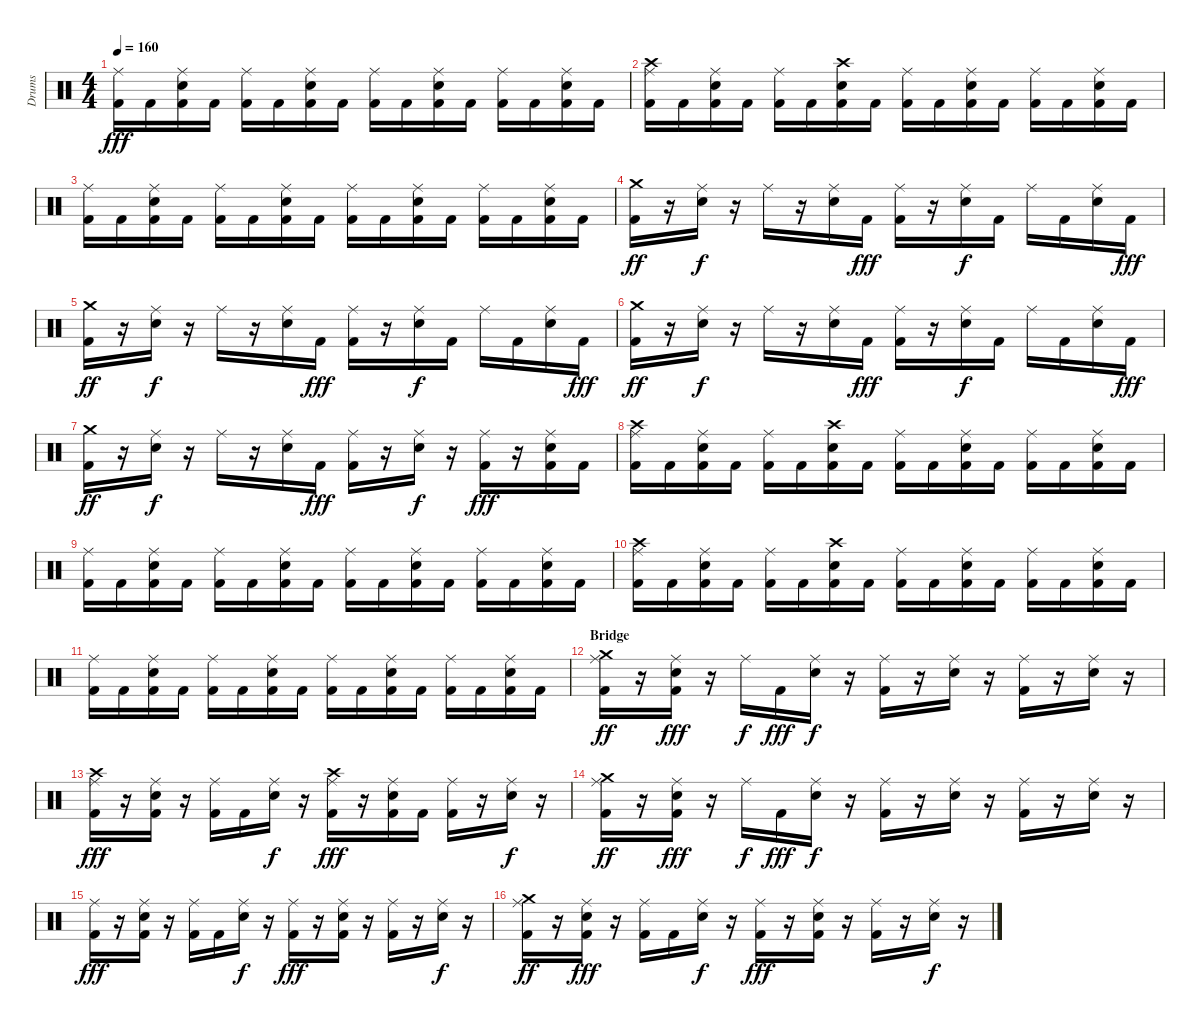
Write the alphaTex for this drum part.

\track ("Drums" "Drums") {instrument percussion}
\staff {score}
\articulation defaults
\ts (4 4)
\tempo 160
\clef neutral
\ks c
("Kick (hit) 2" "Ride (middle)").16{dy fff} "Kick (hit) 2".16 ("Kick (hit) 2" "Ride (middle)" "Snare (hit) 2").16 "Kick (hit) 2".16 ("Kick (hit) 2" "Ride (middle)").16 "Kick (hit) 2".16 ("Kick (hit) 2" "Ride (middle)" "Snare (hit) 2").16 "Kick (hit) 2".16 ("Kick (hit) 2" "Ride (middle)").16 "Kick (hit) 2".16 ("Kick (hit) 2" "Ride (middle)" "Snare (hit) 2").16 "Kick (hit) 2".16 ("Kick (hit) 2" "Ride (middle)").16 "Kick (hit) 2".16 ("Kick (hit) 2" "Ride (middle)" "Snare (hit) 2").16 "Kick (hit) 2".16 |
("Kick (hit) 2" "Ride (middle)" "Crash high (hit)").16 "Kick (hit) 2".16 ("Kick (hit) 2" "Ride (middle)" "Snare (hit) 2").16 "Kick (hit) 2".16 ("Kick (hit) 2" "Ride (middle)").16 "Kick (hit) 2".16 ("Kick (hit) 2" "Snare (hit) 2" "Crash high (hit)").16 "Kick (hit) 2".16 ("Kick (hit) 2" "Ride (middle)").16 "Kick (hit) 2".16 ("Kick (hit) 2" "Ride (middle)" "Snare (hit) 2").16 "Kick (hit) 2".16 ("Kick (hit) 2" "Ride (middle)").16 "Kick (hit) 2".16 ("Kick (hit) 2" "Ride (middle)" "Snare (hit) 2").16 "Kick (hit) 2".16 |
("Kick (hit) 2" "Ride (middle)").16 "Kick (hit) 2".16 ("Kick (hit) 2" "Ride (middle)" "Snare (hit) 2").16 "Kick (hit) 2".16 ("Kick (hit) 2" "Ride (middle)").16 "Kick (hit) 2".16 ("Kick (hit) 2" "Ride (middle)" "Snare (hit) 2").16 "Kick (hit) 2".16 ("Kick (hit) 2" "Ride (middle)").16 "Kick (hit) 2".16 ("Kick (hit) 2" "Ride (middle)" "Snare (hit) 2").16 "Kick (hit) 2".16 ("Kick (hit) 2" "Ride (middle)").16 "Kick (hit) 2".16 ("Kick (hit) 2" "Ride (middle)" "Snare (hit) 2").16 "Kick (hit) 2".16 |
("Kick (hit) 2" "Crash medium (hit)").16{dy ff} r.16 ("Ride (middle)" "Snare (hit) 2").16{dy f} r.16 "Ride (middle)".16 r.16 ("Ride (middle)" "Snare (hit) 2").16 "Kick (hit) 2".16{dy fff} ("Kick (hit) 2" "Ride (middle)").16 r.16 ("Ride (middle)" "Snare (hit) 2").16{dy f} "Kick (hit) 2".16 "Ride (middle)".16 "Kick (hit) 2".16 ("Ride (middle)" "Snare (hit) 2").16 "Kick (hit) 2".16{dy fff} |
("Kick (hit) 2" "Crash medium (hit)").16{dy ff} r.16 ("Ride (middle)" "Snare (hit) 2").16{dy f} r.16 "Ride (middle)".16 r.16 ("Ride (middle)" "Snare (hit) 2").16 "Kick (hit) 2".16{dy fff} ("Kick (hit) 2" "Ride (middle)").16 r.16 ("Ride (middle)" "Snare (hit) 2").16{dy f} "Kick (hit) 2".16 "Ride (middle)".16 "Kick (hit) 2".16 ("Ride (middle)" "Snare (hit) 2").16 "Kick (hit) 2".16{dy fff} |
("Kick (hit) 2" "Crash medium (hit)").16{dy ff} r.16 ("Ride (middle)" "Snare (hit) 2").16{dy f} r.16 "Ride (middle)".16 r.16 ("Ride (middle)" "Snare (hit) 2").16 "Kick (hit) 2".16{dy fff} ("Kick (hit) 2" "Ride (middle)").16 r.16 ("Ride (middle)" "Snare (hit) 2").16{dy f} "Kick (hit) 2".16 "Ride (middle)".16 "Kick (hit) 2".16 ("Ride (middle)" "Snare (hit) 2").16 "Kick (hit) 2".16{dy fff} |
("Kick (hit) 2" "Crash medium (hit)").16{dy ff} r.16 ("Ride (middle)" "Snare (hit) 2").16{dy f} r.16 "Ride (middle)".16 r.16 ("Ride (middle)" "Snare (hit) 2").16 "Kick (hit) 2".16{dy fff} ("Kick (hit) 2" "Ride (middle)").16 r.16 ("Ride (middle)" "Snare (hit) 2").16{dy f} r.16 ("Kick (hit) 2" "Ride (middle)").16{dy fff} r.16 ("Kick (hit) 2" "Ride (middle)" "Snare (hit) 2").16 "Kick (hit) 2".16 |
("Kick (hit) 2" "Ride (middle)" "Crash high (hit)").16 "Kick (hit) 2".16 ("Kick (hit) 2" "Ride (middle)" "Snare (hit) 2").16 "Kick (hit) 2".16 ("Kick (hit) 2" "Ride (middle)").16 "Kick (hit) 2".16 ("Kick (hit) 2" "Snare (hit) 2" "Crash high (hit)").16 "Kick (hit) 2".16 ("Kick (hit) 2" "Ride (middle)").16 "Kick (hit) 2".16 ("Kick (hit) 2" "Ride (middle)" "Snare (hit) 2").16 "Kick (hit) 2".16 ("Kick (hit) 2" "Ride (middle)").16 "Kick (hit) 2".16 ("Kick (hit) 2" "Ride (middle)" "Snare (hit) 2").16 "Kick (hit) 2".16 |
("Kick (hit) 2" "Ride (middle)").16 "Kick (hit) 2".16 ("Kick (hit) 2" "Ride (middle)" "Snare (hit) 2").16 "Kick (hit) 2".16 ("Kick (hit) 2" "Ride (middle)").16 "Kick (hit) 2".16 ("Kick (hit) 2" "Ride (middle)" "Snare (hit) 2").16 "Kick (hit) 2".16 ("Kick (hit) 2" "Ride (middle)").16 "Kick (hit) 2".16 ("Kick (hit) 2" "Ride (middle)" "Snare (hit) 2").16 "Kick (hit) 2".16 ("Kick (hit) 2" "Ride (middle)").16 "Kick (hit) 2".16 ("Kick (hit) 2" "Ride (middle)" "Snare (hit) 2").16 "Kick (hit) 2".16 |
("Kick (hit) 2" "Ride (middle)" "Crash high (hit)").16 "Kick (hit) 2".16 ("Kick (hit) 2" "Ride (middle)" "Snare (hit) 2").16 "Kick (hit) 2".16 ("Kick (hit) 2" "Ride (middle)").16 "Kick (hit) 2".16 ("Kick (hit) 2" "Snare (hit) 2" "Crash high (hit)").16 "Kick (hit) 2".16 ("Kick (hit) 2" "Ride (middle)").16 "Kick (hit) 2".16 ("Kick (hit) 2" "Ride (middle)" "Snare (hit) 2").16 "Kick (hit) 2".16 ("Kick (hit) 2" "Ride (middle)").16 "Kick (hit) 2".16 ("Kick (hit) 2" "Ride (middle)" "Snare (hit) 2").16 "Kick (hit) 2".16 |
("Kick (hit) 2" "Ride (middle)").16 "Kick (hit) 2".16 ("Kick (hit) 2" "Ride (middle)" "Snare (hit) 2").16 "Kick (hit) 2".16 ("Kick (hit) 2" "Ride (middle)").16 "Kick (hit) 2".16 ("Kick (hit) 2" "Ride (middle)" "Snare (hit) 2").16 "Kick (hit) 2".16 ("Kick (hit) 2" "Ride (middle)").16 "Kick (hit) 2".16 ("Kick (hit) 2" "Ride (middle)" "Snare (hit) 2").16 "Kick (hit) 2".16 ("Kick (hit) 2" "Ride (middle)").16 "Kick (hit) 2".16 ("Kick (hit) 2" "Ride (middle)" "Snare (hit) 2").16 "Kick (hit) 2".16 |
\section ("" "Bridge")
("Kick (hit) 2" "Ride (middle)" "Crash medium (hit)").16{dy ff} r.16 ("Kick (hit) 2" "Ride (middle)" "Snare (hit) 2").16{dy fff} r.16 "Ride (middle)".16{dy f} "Kick (hit) 2".16{dy fff} ("Ride (middle)" "Snare (hit) 2").16{dy f} r.16 ("Kick (hit) 2" "Ride (middle)").16 r.16 ("Ride (middle)" "Snare (hit) 2").16 r.16 ("Kick (hit) 2" "Ride (middle)").16 r.16 ("Ride (middle)" "Snare (hit) 2").16 r.16 |
("Kick (hit) 2" "Ride (middle)" "Crash high (hit)").16{dy fff} r.16 ("Kick (hit) 2" "Ride (middle)" "Snare (hit) 2").16 r.16 ("Kick (hit) 2" "Ride (middle)").16 "Kick (hit) 2".16 ("Ride (middle)" "Snare (hit) 2").16{dy f} r.16 ("Kick (hit) 2" "Ride (middle)" "Crash high (hit)").16{dy fff} r.16 ("Kick (hit) 2" "Ride (middle)" "Snare (hit) 2").16 "Kick (hit) 2".16 ("Kick (hit) 2" "Ride (middle)").16 r.16 ("Ride (middle)" "Snare (hit) 2").16{dy f} r.16 |
("Kick (hit) 2" "Ride (middle)" "Crash medium (hit)").16{dy ff} r.16 ("Kick (hit) 2" "Ride (middle)" "Snare (hit) 2").16{dy fff} r.16 "Ride (middle)".16{dy f} "Kick (hit) 2".16{dy fff} ("Ride (middle)" "Snare (hit) 2").16{dy f} r.16 ("Kick (hit) 2" "Ride (middle)").16 r.16 ("Ride (middle)" "Snare (hit) 2").16 r.16 ("Kick (hit) 2" "Ride (middle)").16 r.16 ("Ride (middle)" "Snare (hit) 2").16 r.16 |
("Kick (hit) 2" "Ride (middle)").16{dy fff} r.16 ("Kick (hit) 2" "Ride (middle)" "Snare (hit) 2").16 r.16 ("Kick (hit) 2" "Ride (middle)").16 "Kick (hit) 2".16 ("Ride (middle)" "Snare (hit) 2").16{dy f} r.16 ("Kick (hit) 2" "Ride (middle)").16{dy fff} r.16 ("Kick (hit) 2" "Ride (middle)" "Snare (hit) 2").16 r.16 ("Kick (hit) 2" "Ride (middle)").16 r.16 ("Ride (middle)" "Snare (hit) 2").16{dy f} r.16 |
("Kick (hit) 2" "Ride (middle)" "Crash medium (hit)").16{dy ff} r.16 ("Kick (hit) 2" "Ride (middle)" "Snare (hit) 2").16{dy fff} r.16 ("Kick (hit) 2" "Ride (middle)").16 "Kick (hit) 2".16 ("Ride (middle)" "Snare (hit) 2").16{dy f} r.16 ("Kick (hit) 2" "Ride (middle)").16{dy fff} r.16 ("Kick (hit) 2" "Ride (middle)" "Snare (hit) 2").16 r.16 ("Kick (hit) 2" "Ride (middle)").16 r.16 ("Ride (middle)" "Snare (hit) 2").16{dy f} r.16
